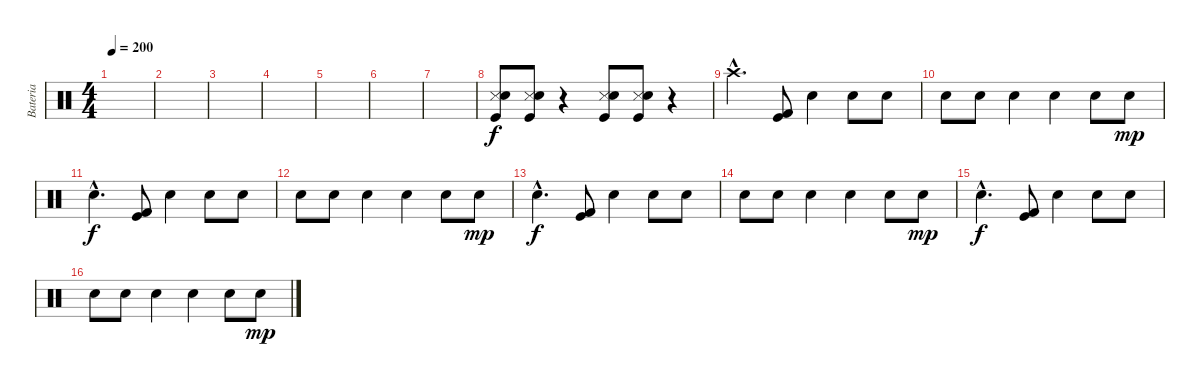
\track ("Bateria" "Bateria") {instrument percussion}
\staff {score}
\articulation defaults
\ts (4 4)
\tempo 200
\clef neutral
\ks c
|
|
|
|
|
|
|
("Snare (side stick) 3" "Electric Snare (hit)" "Kick (hit)").8 ("Snare (side stick) 3" "Electric Snare (hit)" "Kick (hit)").8 r.4 ("Snare (side stick) 3" "Electric Snare (hit)" "Kick (hit)").8 ("Snare (side stick) 3" "Electric Snare (hit)" "Kick (hit)").8 r.4 |
"Crash high (hit)"{hac}.4{d dy f} ("Kick (hit)" "Kick (hit) 2").8 "Electric Snare (hit)".4 "Electric Snare (hit)".8 "Electric Snare (hit)".8 |
"Electric Snare (hit)".8 "Electric Snare (hit)".8 "Electric Snare (hit)".4 "Electric Snare (hit)".4 "Electric Snare (hit)".8 "Electric Snare (hit)".8{dy mp} |
"Electric Snare (hit)"{hac}.4{d dy f} ("Kick (hit)" "Kick (hit) 2").8 "Electric Snare (hit)".4 "Electric Snare (hit)".8 "Electric Snare (hit)".8 |
"Electric Snare (hit)".8 "Electric Snare (hit)".8 "Electric Snare (hit)".4 "Electric Snare (hit)".4 "Electric Snare (hit)".8 "Electric Snare (hit)".8{dy mp} |
"Electric Snare (hit)"{hac}.4{d dy f} ("Kick (hit)" "Kick (hit) 2").8 "Electric Snare (hit)".4 "Electric Snare (hit)".8 "Electric Snare (hit)".8 |
"Electric Snare (hit)".8 "Electric Snare (hit)".8 "Electric Snare (hit)".4 "Electric Snare (hit)".4 "Electric Snare (hit)".8 "Electric Snare (hit)".8{dy mp} |
"Electric Snare (hit)"{hac}.4{d dy f} ("Kick (hit)" "Kick (hit) 2").8 "Electric Snare (hit)".4 "Electric Snare (hit)".8 "Electric Snare (hit)".8 |
"Electric Snare (hit)".8 "Electric Snare (hit)".8 "Electric Snare (hit)".4 "Electric Snare (hit)".4 "Electric Snare (hit)".8 "Electric Snare (hit)".8{dy mp}
